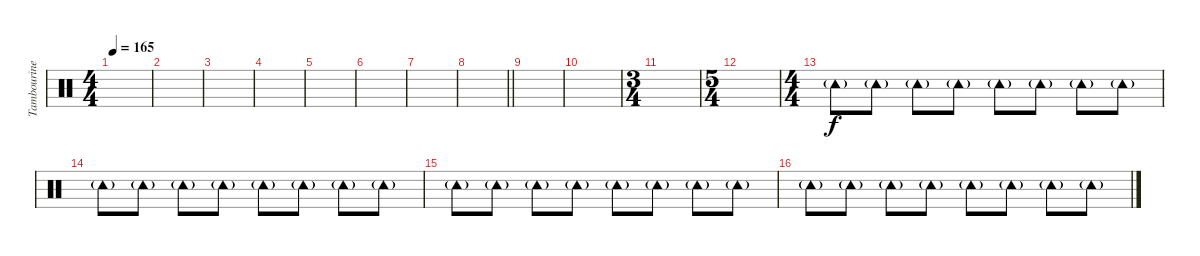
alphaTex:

\track ("Tambourine" "Tambourine") {instrument percussion}
\staff {score}
\articulation defaults
\ts (4 4)
\tempo 165
\clef neutral
\ks c
|
|
|
|
|
|
|
\barLineRight lightlight
|
|
|
\ts (3 4)
|
\ts (5 4)
|
\ts (4 4)
"Tambourine (hit)"{g}.8{volume 9} "Tambourine (hit)"{g}.8 "Tambourine (hit)"{g}.8 "Tambourine (hit)"{g}.8 "Tambourine (hit)"{g}.8 "Tambourine (hit)"{g}.8 "Tambourine (hit)"{g}.8 "Tambourine (hit)"{g}.8 |
"Tambourine (hit)"{g}.8 "Tambourine (hit)"{g}.8 "Tambourine (hit)"{g}.8 "Tambourine (hit)"{g}.8 "Tambourine (hit)"{g}.8 "Tambourine (hit)"{g}.8 "Tambourine (hit)"{g}.8 "Tambourine (hit)"{g}.8 |
"Tambourine (hit)"{g}.8 "Tambourine (hit)"{g}.8 "Tambourine (hit)"{g}.8 "Tambourine (hit)"{g}.8 "Tambourine (hit)"{g}.8 "Tambourine (hit)"{g}.8 "Tambourine (hit)"{g}.8 "Tambourine (hit)"{g}.8 |
"Tambourine (hit)"{g}.8 "Tambourine (hit)"{g}.8 "Tambourine (hit)"{g}.8 "Tambourine (hit)"{g}.8 "Tambourine (hit)"{g}.8 "Tambourine (hit)"{g}.8 "Tambourine (hit)"{g}.8 "Tambourine (hit)"{g}.8
